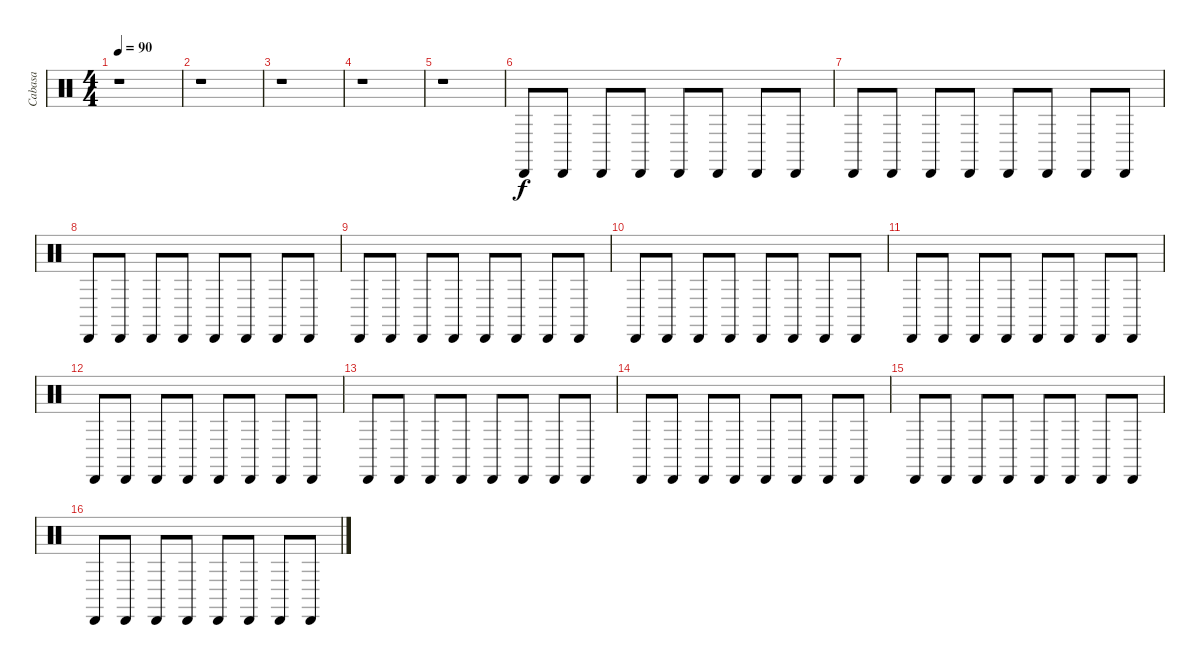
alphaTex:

\track ("Cabasa" "Cabasa") {instrument percussion}
\staff {score}
\articulation defaults
\ts (4 4)
\tempo 90
\clef neutral
\ks c
r.1{dy f} |
r.1 |
r.1 |
r.1 |
r.1 |
"Cabasa (hit)".8 "Cabasa (hit)".8 "Cabasa (hit)".8 "Cabasa (hit)".8 "Cabasa (hit)".8 "Cabasa (hit)".8 "Cabasa (hit)".8 "Cabasa (hit)".8 |
"Cabasa (hit)".8 "Cabasa (hit)".8 "Cabasa (hit)".8 "Cabasa (hit)".8 "Cabasa (hit)".8 "Cabasa (hit)".8 "Cabasa (hit)".8 "Cabasa (hit)".8 |
"Cabasa (hit)".8 "Cabasa (hit)".8 "Cabasa (hit)".8 "Cabasa (hit)".8 "Cabasa (hit)".8 "Cabasa (hit)".8 "Cabasa (hit)".8 "Cabasa (hit)".8 |
"Cabasa (hit)".8 "Cabasa (hit)".8 "Cabasa (hit)".8 "Cabasa (hit)".8 "Cabasa (hit)".8 "Cabasa (hit)".8 "Cabasa (hit)".8 "Cabasa (hit)".8 |
"Cabasa (hit)".8 "Cabasa (hit)".8 "Cabasa (hit)".8 "Cabasa (hit)".8 "Cabasa (hit)".8 "Cabasa (hit)".8 "Cabasa (hit)".8 "Cabasa (hit)".8 |
"Cabasa (hit)".8 "Cabasa (hit)".8 "Cabasa (hit)".8 "Cabasa (hit)".8 "Cabasa (hit)".8 "Cabasa (hit)".8 "Cabasa (hit)".8 "Cabasa (hit)".8 |
"Cabasa (hit)".8 "Cabasa (hit)".8 "Cabasa (hit)".8 "Cabasa (hit)".8 "Cabasa (hit)".8 "Cabasa (hit)".8 "Cabasa (hit)".8 "Cabasa (hit)".8 |
"Cabasa (hit)".8 "Cabasa (hit)".8 "Cabasa (hit)".8 "Cabasa (hit)".8 "Cabasa (hit)".8 "Cabasa (hit)".8 "Cabasa (hit)".8 "Cabasa (hit)".8 |
"Cabasa (hit)".8 "Cabasa (hit)".8 "Cabasa (hit)".8 "Cabasa (hit)".8 "Cabasa (hit)".8 "Cabasa (hit)".8 "Cabasa (hit)".8 "Cabasa (hit)".8 |
"Cabasa (hit)".8 "Cabasa (hit)".8 "Cabasa (hit)".8 "Cabasa (hit)".8 "Cabasa (hit)".8 "Cabasa (hit)".8 "Cabasa (hit)".8 "Cabasa (hit)".8 |
"Cabasa (hit)".8 "Cabasa (hit)".8 "Cabasa (hit)".8 "Cabasa (hit)".8 "Cabasa (hit)".8 "Cabasa (hit)".8 "Cabasa (hit)".8 "Cabasa (hit)".8
